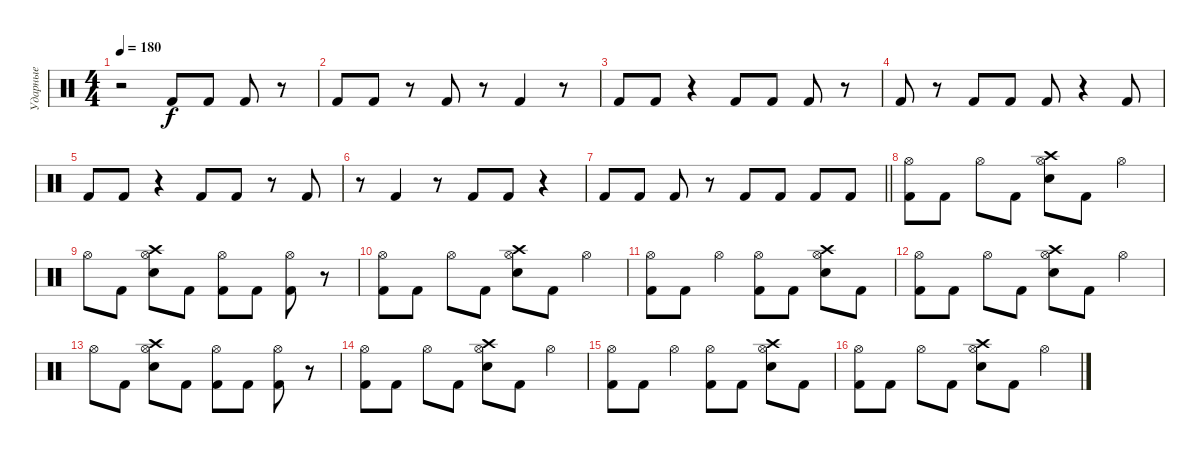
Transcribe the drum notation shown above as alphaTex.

\track ("Ударные" "Ударные") {instrument percussion}
\staff {score}
\articulation defaults
\ts (4 4)
\tempo 180
\clef neutral
\ks c
r.2{dy f} "Kick (hit) 2".8 "Kick (hit) 2".8 "Kick (hit) 2".8 r.8 |
"Kick (hit) 2".8 "Kick (hit) 2".8 r.8 "Kick (hit) 2".8 r.8 "Kick (hit) 2".4 r.8 |
"Kick (hit) 2".8 "Kick (hit) 2".8 r.4 "Kick (hit) 2".8 "Kick (hit) 2".8 "Kick (hit) 2".8 r.8 |
"Kick (hit) 2".8 r.8 "Kick (hit) 2".8 "Kick (hit) 2".8 "Kick (hit) 2".8 r.4 "Kick (hit) 2".8 |
"Kick (hit) 2".8 "Kick (hit) 2".8 r.4 "Kick (hit) 2".8 "Kick (hit) 2".8 r.8 "Kick (hit) 2".8 |
r.8 "Kick (hit) 2".4 r.8 "Kick (hit) 2".8 "Kick (hit) 2".8 r.4 |
\barLineRight lightlight "Kick (hit) 2".8 "Kick (hit) 2".8 "Kick (hit) 2".8
r.8 "Kick (hit) 2".8 "Kick (hit) 2".8 "Kick (hit) 2".8 "Kick (hit) 2".8 |
("Kick (hit) 2" "Hi-Hat (open)").8 "Kick (hit) 2".8 "Hi-Hat (open)".8 "Kick (hit) 2".8 ("Electric Snare (hit)" "Crash high (hit)" "Hi-Hat (open)").8 "Kick (hit) 2".8 "Hi-Hat (open)".4 |
"Hi-Hat (open)".8 "Kick (hit) 2".8 ("Electric Snare (hit)" "Crash high (hit)" "Hi-Hat (open)").8 "Kick (hit) 2".8 ("Kick (hit) 2" "Hi-Hat (open)").8 "Kick (hit) 2".8 ("Kick (hit) 2" "Hi-Hat (open)").8 r.8 |
("Kick (hit) 2" "Hi-Hat (open)").8 "Kick (hit) 2".8 "Hi-Hat (open)".8 "Kick (hit) 2".8 ("Electric Snare (hit)" "Crash high (hit)" "Hi-Hat (open)").8 "Kick (hit) 2".8 "Hi-Hat (open)".4 |
("Kick (hit) 2" "Hi-Hat (open)").8 "Kick (hit) 2".8 "Hi-Hat (open)".4 ("Kick (hit) 2" "Hi-Hat (open)").8 "Kick (hit) 2".8 ("Electric Snare (hit)" "Crash high (hit)" "Hi-Hat (open)").8 "Kick (hit) 2".8 |
("Kick (hit) 2" "Hi-Hat (open)").8 "Kick (hit) 2".8 "Hi-Hat (open)".8 "Kick (hit) 2".8 ("Electric Snare (hit)" "Crash high (hit)" "Hi-Hat (open)").8 "Kick (hit) 2".8 "Hi-Hat (open)".4 |
"Hi-Hat (open)".8 "Kick (hit) 2".8 ("Electric Snare (hit)" "Crash high (hit)" "Hi-Hat (open)").8 "Kick (hit) 2".8 ("Kick (hit) 2" "Hi-Hat (open)").8 "Kick (hit) 2".8 ("Kick (hit) 2" "Hi-Hat (open)").8 r.8 |
("Kick (hit) 2" "Hi-Hat (open)").8 "Kick (hit) 2".8 "Hi-Hat (open)".8 "Kick (hit) 2".8 ("Electric Snare (hit)" "Crash high (hit)" "Hi-Hat (open)").8 "Kick (hit) 2".8 "Hi-Hat (open)".4 |
("Kick (hit) 2" "Hi-Hat (open)").8 "Kick (hit) 2".8 "Hi-Hat (open)".4 ("Kick (hit) 2" "Hi-Hat (open)").8 "Kick (hit) 2".8 ("Electric Snare (hit)" "Crash high (hit)" "Hi-Hat (open)").8 "Kick (hit) 2".8 |
("Kick (hit) 2" "Hi-Hat (open)").8 "Kick (hit) 2".8 "Hi-Hat (open)".8 "Kick (hit) 2".8 ("Electric Snare (hit)" "Crash high (hit)" "Hi-Hat (open)").8 "Kick (hit) 2".8 "Hi-Hat (open)".4
